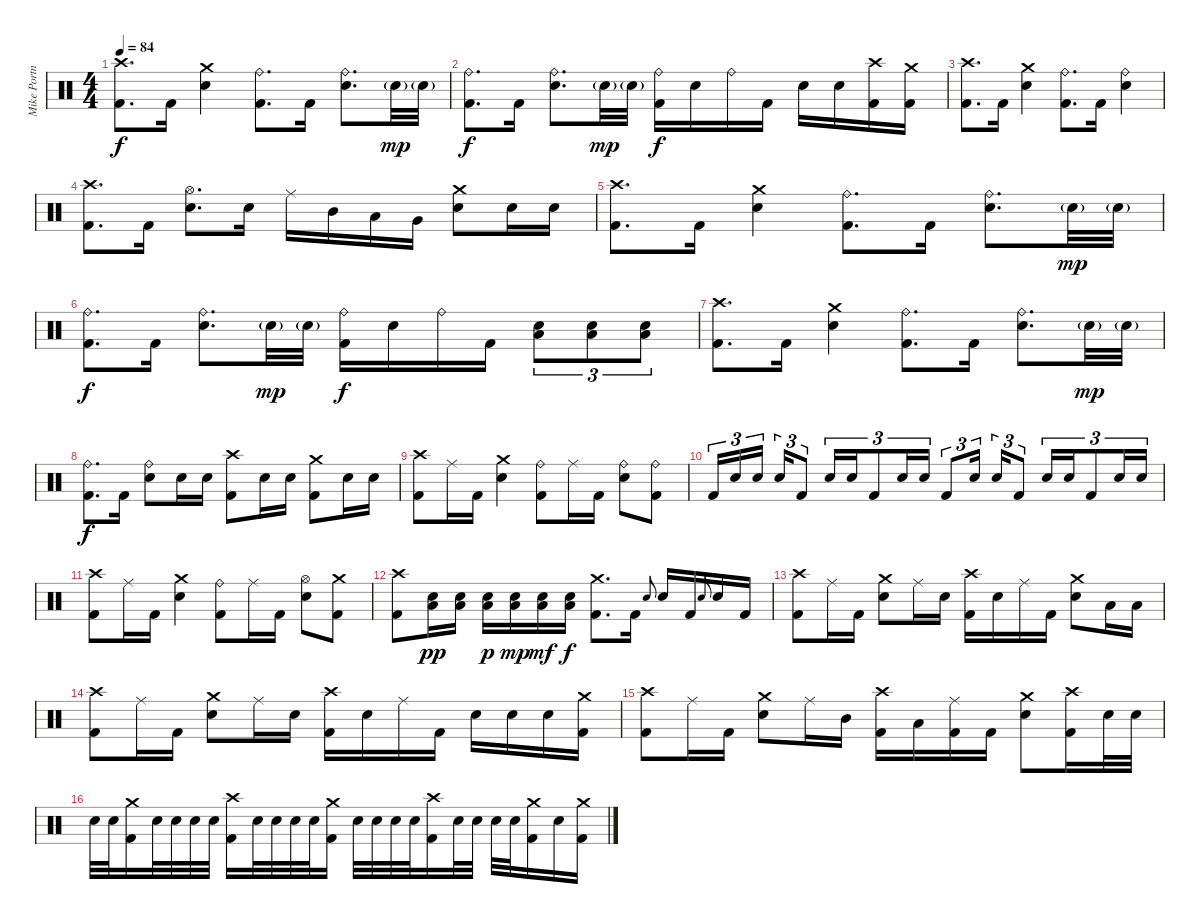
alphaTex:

\track ("Mike Portnoy" "Mike Portn") {instrument percussion}
\staff {score}
\articulation defaults
\ts (4 4)
\tempo 84
\clef neutral
\ks c
("Crash high (hit)" "Kick (hit) 2").8{d dy f} "Kick (hit) 2".16 ("Crash medium (hit)" "Snare (hit) 2").4 ("Ride (bell)" "Kick (hit) 2").8{d} "Kick (hit) 2".16 ("Ride (bell)" "Snare (hit) 2").8{d} "Snare (hit) 2"{g}.32{dy mp} "Snare (hit) 2"{g}.32 |
("Ride (bell)" "Kick (hit) 2").8{d dy f} "Kick (hit) 2".16 ("Ride (bell)" "Snare (hit) 2").8{d} "Snare (hit) 2"{g}.32{dy mp} "Snare (hit) 2"{g}.32 ("Ride (bell)" "Kick (hit) 2").16{dy f} "Snare (hit) 2".16 "Ride (bell)".16 "Kick (hit) 2".16 "Snare (hit) 2".16 "Snare (hit) 2".16 ("Crash high (hit)" "Kick (hit) 2").16 ("Crash medium (hit)" "Kick (hit) 2").16 |
("Crash high (hit)" "Kick (hit) 2").8{d} "Kick (hit) 2".16 ("Crash medium (hit)" "Snare (hit) 2").4 ("Ride (bell)" "Kick (hit) 2").8{d} "Kick (hit) 2".16 ("Ride (bell)" "Snare (hit) 2").4 |
("Crash high (hit)" "Kick (hit) 2").8{d} "Kick (hit) 2".16 ("Hi-Hat (open)" "Snare (hit) 2").8{d} "Snare (hit) 2".16 "Ride (middle)".16 "Mid Tom (hit)".16 "Low Tom (hit)".16 "Very Low Tom (hit)".16 ("Crash medium (hit)" "Snare (hit) 2").8 "Snare (hit) 2".16 "Snare (hit) 2".16 |
("Crash high (hit)" "Kick (hit) 2").8{d} "Kick (hit) 2".16 ("Crash medium (hit)" "Snare (hit) 2").4 ("Ride (bell)" "Kick (hit) 2").8{d} "Kick (hit) 2".16 ("Ride (bell)" "Snare (hit) 2").8{d} "Snare (hit) 2"{g}.32{dy mp} "Snare (hit) 2"{g}.32 |
("Ride (bell)" "Kick (hit) 2").8{d dy f} "Kick (hit) 2".16 ("Ride (bell)" "Snare (hit) 2").8{d} "Snare (hit) 2"{g}.32{dy mp} "Snare (hit) 2"{g}.32 ("Ride (bell)" "Kick (hit) 2").16{dy f} "Snare (hit) 2".16 "Ride (bell)".16 "Kick (hit) 2".16 ("Snare (hit) 2" "Low Tom (hit)").8{tu (3 2)} ("Snare (hit) 2" "Low Tom (hit)").8{tu (3 2)} ("Snare (hit) 2" "Low Tom (hit)").8{tu (3 2)} |
("Crash high (hit)" "Kick (hit) 2").8{d} "Kick (hit) 2".16 ("Crash medium (hit)" "Snare (hit) 2").4 ("Ride (bell)" "Kick (hit) 2").8{d} "Kick (hit) 2".16 ("Ride (bell)" "Snare (hit) 2").8{d} "Snare (hit) 2"{g}.32{dy mp} "Snare (hit) 2"{g}.32 |
("Ride (bell)" "Kick (hit) 2").8{d dy f} "Kick (hit) 2".16 ("Ride (bell)" "Snare (hit) 2").8 "Snare (hit) 2".16 "Snare (hit) 2".16 ("Crash high (hit)" "Kick (hit) 2").8 "Snare (hit) 2".16 "Snare (hit) 2".16 ("Crash medium (hit)" "Kick (hit) 2").8 "Snare (hit) 2".16 "Snare (hit) 2".16 |
("Crash high (hit)" "Kick (hit) 2").8 "Ride (middle)".16 "Kick (hit) 2".16 ("Crash medium (hit)" "Snare (hit) 2").4 ("Ride (bell)" "Kick (hit) 2").8 "Ride (middle)".16 "Kick (hit) 2".16 ("Ride (bell)" "Snare (hit) 2").8 ("Ride (bell)" "Kick (hit) 2").8 |
"Kick (hit) 2".16{tu (3 2)} "Snare (hit) 2".16{tu (3 2)} "Snare (hit) 2".16{tu (3 2) beam splitsecondary} "Snare (hit) 2".16{tu (3 2)} "Kick (hit) 2".8{tu (3 2)} "Snare (hit) 2".16{tu (3 2)} "Snare (hit) 2".16{tu (3 2)} "Kick (hit) 2".8{tu (3 2)} "Snare (hit) 2".16{tu (3 2)} "Snare (hit) 2".16{tu (3 2)} "Kick (hit) 2".8{tu (3 2)} "Snare (hit) 2".16{tu (3 2) beam splitsecondary} "Snare (hit) 2".16{tu (3 2)} "Kick (hit) 2".8{tu (3 2)} "Snare (hit) 2".16{tu (3 2)} "Snare (hit) 2".16{tu (3 2)} "Kick (hit) 2".8{tu (3 2)} "Snare (hit) 2".16{tu (3 2)} "Snare (hit) 2".16{tu (3 2)} |
("Crash high (hit)" "Kick (hit) 2").8 "Ride (middle)".16 "Kick (hit) 2".16 ("Crash medium (hit)" "Snare (hit) 2").4 ("Ride (bell)" "Kick (hit) 2").8 "Ride (middle)".16 "Kick (hit) 2".16 ("Hi-Hat (open)" "Snare (hit) 2").8 ("Crash medium (hit)" "Kick (hit) 2").8 |
("Crash high (hit)" "Kick (hit) 2").8 ("Snare (hit) 2" "Low Tom (hit)").16{dy pp} ("Snare (hit) 2" "Low Tom (hit)").16 ("Snare (hit) 2" "Low Tom (hit)").16{dy p} ("Snare (hit) 2" "Low Tom (hit)").16{dy mp} ("Snare (hit) 2" "Low Tom (hit)").16{dy mf} ("Snare (hit) 2" "Low Tom (hit)").16{dy f} ("Crash medium (hit)" "Kick (hit) 2").8{d} "Kick (hit) 2".16 "Snare (hit) 2".8{gr onbeat} "Snare (hit) 2".16 "Kick (hit) 2".16 "Snare (hit) 2".8{gr onbeat} "Snare (hit) 2".16 "Kick (hit) 2".16 |
("Crash high (hit)" "Kick (hit) 2").8 "Ride (middle)".16 "Kick (hit) 2".16 ("Crash medium (hit)" "Snare (hit) 2").8 "Ride (middle)".16 "Snare (hit) 2".16 ("Crash high (hit)" "Kick (hit) 2").16 "Snare (hit) 2".16 "Ride (middle)".16 "Kick (hit) 2".16 ("Crash medium (hit)" "Snare (hit) 2").8 "Low Tom (hit)".16 "Low Tom (hit)".16 |
("Crash high (hit)" "Kick (hit) 2").8 "Ride (middle)".16 "Kick (hit) 2".16 ("Crash medium (hit)" "Snare (hit) 2").8 "Ride (middle)".16 "Snare (hit) 2".16 ("Crash high (hit)" "Kick (hit) 2").16 "Snare (hit) 2".16 "Ride (middle)".16 "Kick (hit) 2".16 "Snare (hit) 2".16 "Snare (hit) 2".16 "Snare (hit) 2".16 ("Crash medium (hit)" "Kick (hit) 2").16 |
("Crash high (hit)" "Kick (hit) 2").8 "Ride (middle)".16 "Kick (hit) 2".16 ("Crash medium (hit)" "Snare (hit) 2").8 "Ride (middle)".16 "Mid Tom (hit)".16 ("Crash high (hit)" "Kick (hit) 2").16 "Low Tom (hit)".16 ("Ride (middle)" "Kick (hit) 2").16 "Kick (hit) 2".16 ("Crash medium (hit)" "Snare (hit) 2").8 ("Crash high (hit)" "Kick (hit) 2").16 "Snare (hit) 2".32 "Snare (hit) 2".32 |
"Snare (hit) 2".32 "Snare (hit) 2".32 ("Crash medium (hit)" "Kick (hit) 2").16 "Snare (hit) 2".32 "Snare (hit) 2".32 "Snare (hit) 2".32 "Snare (hit) 2".32 ("Crash high (hit)" "Kick (hit) 2").16 "Snare (hit) 2".32 "Snare (hit) 2".32 "Snare (hit) 2".32 "Snare (hit) 2".32 ("Crash medium (hit)" "Kick (hit) 2").16 "Snare (hit) 2".32 "Snare (hit) 2".32 "Snare (hit) 2".32 "Snare (hit) 2".32 ("Crash high (hit)" "Kick (hit) 2").16 "Snare (hit) 2".32 "Snare (hit) 2".32 "Snare (hit) 2".32 "Snare (hit) 2".32 ("Crash medium (hit)" "Kick (hit) 2").16 "Snare (hit) 2".16 ("Crash medium (hit)" "Kick (hit) 2").16
